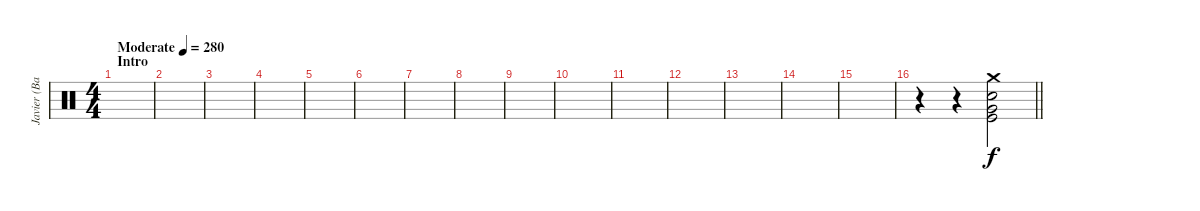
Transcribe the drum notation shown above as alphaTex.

\track ("Javier (Bateria)" "Javier (Ba") {instrument percussion}
\staff {score}
\articulation defaults
\ts (4 4)
\section ("" "Intro")
\tempo (280 "Moderate")
\clef neutral
\ks c
|
|
|
|
|
|
|
|
|
|
|
|
|
|
|
\barLineRight lightlight
r.4 r.4 ("Crash medium (hit)" "Kick (hit)" "Snare (hit) 2" "Very Low Tom (hit)").2
